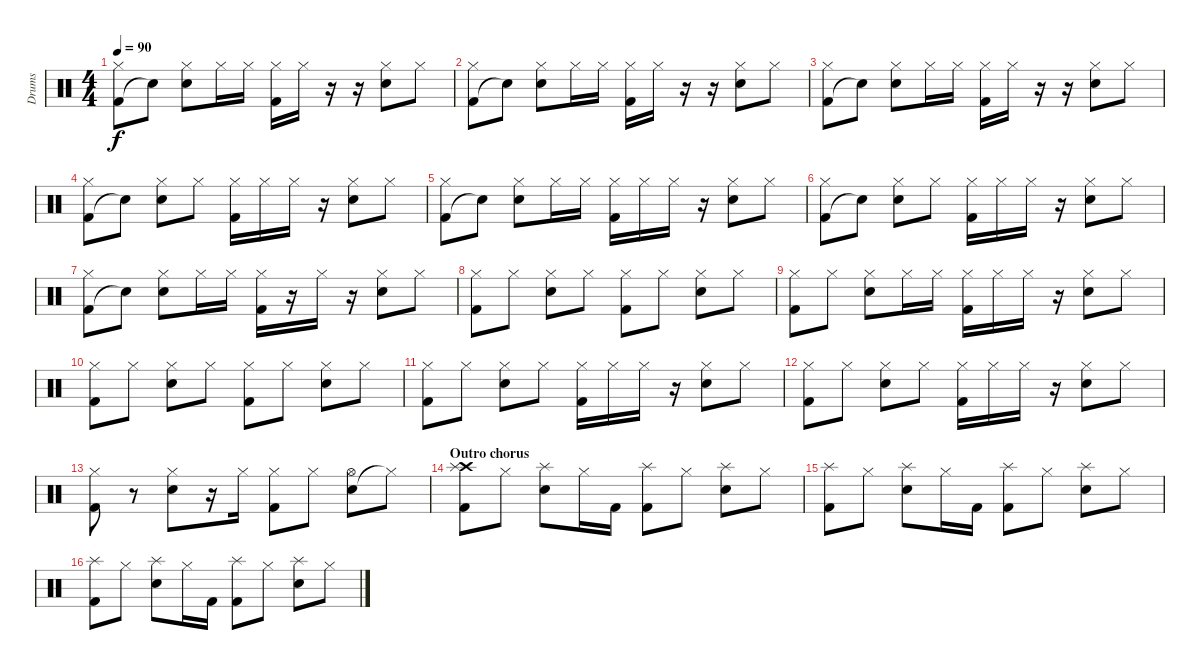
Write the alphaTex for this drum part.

\track ("Drums" "Drums") {instrument percussion}
\staff {score}
\articulation defaults
\ts (4 4)
\tempo 90
\clef neutral
\ks c
("Kick (hit) 2" "Hi-Hat (closed)").8{dy f} "Snare (hit)"{t}.8 ("Snare (hit) 2" "Hi-Hat (closed)").8 "Hi-Hat (closed)".16 "Hi-Hat (closed)".16 ("Kick (hit) 2" "Hi-Hat (closed)").16 "Hi-Hat (closed)".16 r.16 r.16 ("Snare (hit) 2" "Hi-Hat (closed)").8 "Hi-Hat (closed)".8 |
("Kick (hit) 2" "Hi-Hat (closed)").8 "Snare (hit)"{t}.8 ("Snare (hit) 2" "Hi-Hat (closed)").8 "Hi-Hat (closed)".16 "Hi-Hat (closed)".16 ("Kick (hit) 2" "Hi-Hat (closed)").16 "Hi-Hat (closed)".16 r.16 r.16 ("Snare (hit) 2" "Hi-Hat (closed)").8 "Hi-Hat (closed)".8 |
("Kick (hit) 2" "Hi-Hat (closed)").8 "Snare (hit)"{t}.8 ("Snare (hit) 2" "Hi-Hat (closed)").8 "Hi-Hat (closed)".16 "Hi-Hat (closed)".16 ("Kick (hit) 2" "Hi-Hat (closed)").16 "Hi-Hat (closed)".16 r.16 r.16 ("Snare (hit) 2" "Hi-Hat (closed)").8 "Hi-Hat (closed)".8 |
("Kick (hit) 2" "Hi-Hat (closed)").8 "Snare (hit)"{t}.8 ("Snare (hit) 2" "Hi-Hat (closed)").8 "Hi-Hat (closed)".8 ("Kick (hit) 2" "Hi-Hat (closed)").16 "Hi-Hat (closed)".16 "Hi-Hat (closed)".16 r.16 ("Snare (hit) 2" "Hi-Hat (closed)").8 "Hi-Hat (closed)".8 |
("Kick (hit) 2" "Hi-Hat (closed)").8 "Snare (hit)"{t}.8 ("Snare (hit) 2" "Hi-Hat (closed)").8 "Hi-Hat (closed)".16 "Hi-Hat (closed)".16 ("Kick (hit) 2" "Hi-Hat (closed)").16 "Hi-Hat (closed)".16 "Hi-Hat (closed)".16 r.16 ("Snare (hit) 2" "Hi-Hat (closed)").8 "Hi-Hat (closed)".8 |
("Kick (hit) 2" "Hi-Hat (closed)").8 "Snare (hit)"{t}.8 ("Snare (hit) 2" "Hi-Hat (closed)").8 "Hi-Hat (closed)".8 ("Kick (hit) 2" "Hi-Hat (closed)").16 "Hi-Hat (closed)".16 "Hi-Hat (closed)".16 r.16 ("Snare (hit) 2" "Hi-Hat (closed)").8 "Hi-Hat (closed)".8 |
("Kick (hit) 2" "Hi-Hat (closed)").8 "Snare (hit)"{t}.8 ("Snare (hit) 2" "Hi-Hat (closed)").8 "Hi-Hat (closed)".16 "Hi-Hat (closed)".16 ("Kick (hit) 2" "Hi-Hat (closed)").16 r.16 "Hi-Hat (closed)".16 r.16 ("Snare (hit) 2" "Hi-Hat (closed)").8 "Hi-Hat (closed)".8 |
("Kick (hit) 2" "Hi-Hat (closed)").8 "Hi-Hat (closed)".8 ("Snare (hit) 2" "Hi-Hat (closed)").8 "Hi-Hat (closed)".8 ("Kick (hit) 2" "Hi-Hat (closed)").8 "Hi-Hat (closed)".8 ("Snare (hit) 2" "Hi-Hat (closed)").8 "Hi-Hat (closed)".8 |
("Kick (hit) 2" "Hi-Hat (closed)").8 "Hi-Hat (closed)".8 ("Snare (hit) 2" "Hi-Hat (closed)").8 "Hi-Hat (closed)".16 "Hi-Hat (closed)".16 ("Kick (hit) 2" "Hi-Hat (closed)").16 "Hi-Hat (closed)".16 "Hi-Hat (closed)".16 r.16 ("Snare (hit) 2" "Hi-Hat (closed)").8 "Hi-Hat (closed)".8 |
("Kick (hit) 2" "Hi-Hat (closed)").8 "Hi-Hat (closed)".8 ("Snare (hit) 2" "Hi-Hat (closed)").8 "Hi-Hat (closed)".8 ("Kick (hit) 2" "Hi-Hat (closed)").8 "Hi-Hat (closed)".8 ("Snare (hit) 2" "Hi-Hat (closed)").8 "Hi-Hat (closed)".8 |
("Kick (hit) 2" "Hi-Hat (closed)").8 "Hi-Hat (closed)".8 ("Snare (hit) 2" "Hi-Hat (closed)").8 "Hi-Hat (closed)".8 ("Kick (hit) 2" "Hi-Hat (closed)").16 "Hi-Hat (closed)".16 "Hi-Hat (closed)".16 r.16 ("Snare (hit) 2" "Hi-Hat (closed)").8 "Hi-Hat (closed)".8 |
("Kick (hit) 2" "Hi-Hat (closed)").8 "Hi-Hat (closed)".8 ("Snare (hit) 2" "Hi-Hat (closed)").8 "Hi-Hat (closed)".8 ("Kick (hit) 2" "Hi-Hat (closed)").16 "Hi-Hat (closed)".16 "Hi-Hat (closed)".16 r.16 ("Snare (hit) 2" "Hi-Hat (closed)").8 "Hi-Hat (closed)".8 |
("Kick (hit) 2" "Hi-Hat (closed)").8 r.8 ("Snare (hit) 2" "Hi-Hat (closed)").8 r.16 "Hi-Hat (closed)".16 ("Kick (hit) 2" "Hi-Hat (closed)").8 "Hi-Hat (closed)".8 ("Snare (hit) 2" "Hi-Hat (open)").8 "Hi-Hat (closed)"{t}.8 |
\section ("" "Outro chorus")
("Kick (hit) 2" "Crash high (hit)" "Splash (hit)").8 "Hi-Hat (closed)".8 ("Snare (hit) 2" "Splash (hit)").8 "Hi-Hat (closed)".16 "Kick (hit) 2".16 ("Kick (hit) 2" "Splash (hit)").8 "Hi-Hat (closed)".8 ("Snare (hit) 2" "Splash (hit)").8 "Hi-Hat (closed)".8 |
("Kick (hit) 2" "Splash (hit)").8 "Hi-Hat (closed)".8 ("Snare (hit) 2" "Splash (hit)").8 "Hi-Hat (closed)".16 "Kick (hit) 2".16 ("Kick (hit) 2" "Splash (hit)").8 "Hi-Hat (closed)".8 ("Snare (hit) 2" "Splash (hit)").8 "Hi-Hat (closed)".8 |
("Kick (hit) 2" "Splash (hit)").8 "Hi-Hat (closed)".8 ("Snare (hit) 2" "Splash (hit)").8 "Hi-Hat (closed)".16 "Kick (hit) 2".16 ("Kick (hit) 2" "Splash (hit)").8 "Hi-Hat (closed)".8 ("Snare (hit) 2" "Splash (hit)").8 "Hi-Hat (closed)".8
